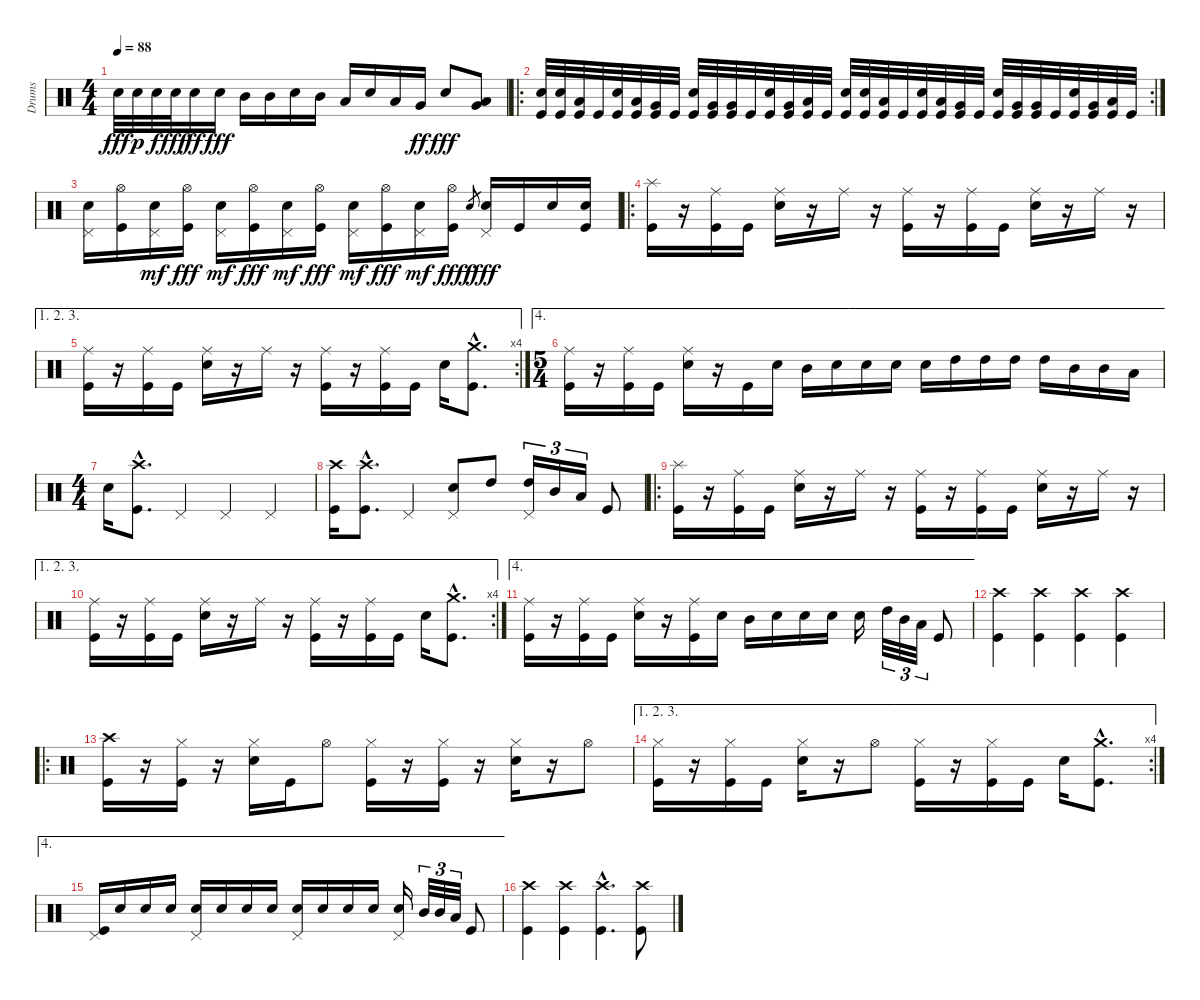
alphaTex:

\track ("Drums" "Drums") {instrument percussion}
\staff {score}
\articulation defaults
\ts (4 4)
\tempo 88
\clef neutral
\ks c "Electric Snare (hit)".32{dy fff} "Electric Snare (hit)".32{dy p} "Electric Snare (hit)".32{dy f} "Electric Snare (hit)".32{dy fff} "Electric Snare (hit)".16{dy ff} "Electric Snare (hit)".16{dy fff} "Mid Tom (hit)".16 "Mid Tom (hit)".16 "Electric Snare (hit)".16 "Mid Tom (hit)".16 "Low Tom (hit)".16 "Electric Snare (hit)".16 "Low Tom (hit)".16 "Very Low Tom (hit)".16{dy ff} "Electric Snare (hit)".8{dy fff}
("Low Floor Tom (hit)" "Very Low Tom (hit)").8 |
\ro
\rc 2
("Electric Snare (hit)" "Kick (hit)").32 ("Electric Snare (hit)" "Kick (hit)").32 ("Low Tom (hit)" "Kick (hit)").32 "Kick (hit)".32 ("Electric Snare (hit)" "Kick (hit)").32 ("Low Tom (hit)" "Kick (hit)").32 ("Very Low Tom (hit)" "Kick (hit)").32 "Kick (hit)".32 ("Electric Snare (hit)" "Kick (hit)").32 ("Very Low Tom (hit)" "Kick (hit)").32 ("Very Low Tom (hit)" "Kick (hit)").32 "Kick (hit)".32 ("Electric Snare (hit)" "Kick (hit)").32 ("Very Low Tom (hit)" "Kick (hit)").32 ("Low Floor Tom (hit)" "Kick (hit)").32 "Kick (hit)".32 ("Electric Snare (hit)" "Kick (hit)").32 ("Electric Snare (hit)" "Kick (hit)").32 ("Low Tom (hit)" "Kick (hit)").32 "Kick (hit)".32 ("Electric Snare (hit)" "Kick (hit)").32 ("Low Tom (hit)" "Kick (hit)").32 ("Very Low Tom (hit)" "Kick (hit)").32 "Kick (hit)".32 ("Electric Snare (hit)" "Kick (hit)").32 ("Very Low Tom (hit)" "Kick (hit)").32 ("Very Low Tom (hit)" "Kick (hit)").32 "Kick (hit)".32 ("Electric Snare (hit)" "Kick (hit)").32 ("Very Low Tom (hit)" "Kick (hit)").32 ("Low Floor Tom (hit)" "Kick (hit)").32 "Kick (hit)".32 |
("Pedal Hi-Hat (hit)" "Electric Snare (hit)").16 ("Hi-Hat (open)" "Kick (hit)").16 ("Pedal Hi-Hat (hit)" "Electric Snare (hit)").16{dy mf} ("Hi-Hat (open)" "Kick (hit)").16{dy fff} ("Pedal Hi-Hat (hit)" "Electric Snare (hit)").16{dy mf} ("Hi-Hat (open)" "Kick (hit)").16{dy fff} ("Pedal Hi-Hat (hit)" "Electric Snare (hit)").16{dy mf} ("Hi-Hat (open)" "Kick (hit)").16{dy fff} ("Pedal Hi-Hat (hit)" "Electric Snare (hit)").16{dy mf} ("Hi-Hat (open)" "Kick (hit)").16{dy fff} ("Pedal Hi-Hat (hit)" "Electric Snare (hit)").16{dy mf} ("Hi-Hat (open)" "Kick (hit)").16{dy fff} "Electric Snare (hit)".8{gr dy f} ("Pedal Hi-Hat (hit)" "Electric Snare (hit)").16{dy fff} "Kick (hit)".16 "Electric Snare (hit)".16 ("Electric Snare (hit)" "Kick (hit)").16 |
\ro
("Splash (hit)" "Kick (hit)").16 r.16 ("Ride (middle)" "Kick (hit)").16 "Kick (hit)".16 ("Ride (middle)" "Electric Snare (hit)").16 r.16 "Ride (middle)".16 r.16 ("Ride (middle)" "Kick (hit)").16 r.16 ("Ride (middle)" "Kick (hit)").16 "Kick (hit)".16 ("Ride (middle)" "Electric Snare (hit)").16 r.16 "Ride (middle)".16 r.16 |
\ae (1 2 3)
\rc 4
("Ride (middle)" "Kick (hit)").16 r.16 ("Ride (middle)" "Kick (hit)").16 "Kick (hit)".16 ("Ride (middle)" "Electric Snare (hit)").16 r.16 "Ride (middle)".16 r.16 ("Ride (middle)" "Kick (hit)").16 r.16 ("Ride (middle)" "Kick (hit)").16 "Kick (hit)".16 "Electric Snare (hit)".16 ("Crash medium (hit)"{hac} "Kick (hit)"{hac}).8{d} |
\ae 4
\ts (5 4)
("Ride (middle)" "Kick (hit)").16 r.16 ("Ride (middle)" "Kick (hit)").16 "Kick (hit)".16 ("Ride (middle)" "Electric Snare (hit)").16 r.16 "Kick (hit)".16 "Electric Snare (hit)".16 "Mid Tom (hit)".16 "Electric Snare (hit)".16 "Electric Snare (hit)".16 "Electric Snare (hit)".16 "Electric Snare (hit)".16 "High Tom (hit)".16 "High Tom (hit)".16 "High Tom (hit)".16 "High Tom (hit)".16 "Mid Tom (hit)".16 "Mid Tom (hit)".16 "Low Tom (hit)".16 |
\ts (4 4)
"Electric Snare (hit)".16 ("Crash high (hit)"{hac} "Kick (hit)"{hac}).8{d} "Pedal Hi-Hat (hit)".4 "Pedal Hi-Hat (hit)".4 "Pedal Hi-Hat (hit)".4 |
("Crash high (hit)" "Kick (hit)").16 ("Crash high (hit)"{hac} "Kick (hit)"{hac}).8{d} "Pedal Hi-Hat (hit)".4 ("Pedal Hi-Hat (hit)" "Electric Snare (hit)").8 "High Tom (hit)".8 ("Pedal Hi-Hat (hit)" "High Tom (hit)").16{tu (3 2)} "Mid Tom (hit)".16{tu (3 2)} "Low Tom (hit)".16{tu (3 2)} "Kick (hit)".8 |
\ro
("Splash (hit)" "Kick (hit)").16 r.16 ("Ride (middle)" "Kick (hit)").16 "Kick (hit)".16 ("Ride (middle)" "Electric Snare (hit)").16 r.16 "Ride (middle)".16 r.16 ("Ride (middle)" "Kick (hit)").16 r.16 ("Ride (middle)" "Kick (hit)").16 "Kick (hit)".16 ("Ride (middle)" "Electric Snare (hit)").16 r.16 "Ride (middle)".16 r.16 |
\ae (1 2 3)
\rc 4
("Ride (middle)" "Kick (hit)").16 r.16 ("Ride (middle)" "Kick (hit)").16 "Kick (hit)".16 ("Ride (middle)" "Electric Snare (hit)").16 r.16 "Ride (middle)".16 r.16 ("Ride (middle)" "Kick (hit)").16 r.16 ("Ride (middle)" "Kick (hit)").16 "Kick (hit)".16 "Electric Snare (hit)".16 ("Crash medium (hit)"{hac} "Kick (hit)"{hac}).8{d} |
\ae 4
("Ride (middle)" "Kick (hit)").16 r.16 ("Ride (middle)" "Kick (hit)").16 "Kick (hit)".16 ("Ride (middle)" "Electric Snare (hit)").16 r.16 ("Ride (middle)" "Kick (hit)").16 "Electric Snare (hit)".16 "Mid Tom (hit)".16 "Electric Snare (hit)".16 "Electric Snare (hit)".16 "Electric Snare (hit)".16 "Electric Snare (hit)".16 "High Tom (hit)".32{tu (3 2)} "Mid Tom (hit)".32{tu (3 2)} "Low Tom (hit)".32{tu (3 2)} "Kick (hit)".8 |
("Crash high (hit)" "Kick (hit)").4 ("Crash high (hit)" "Kick (hit)").4 ("Crash high (hit)" "Kick (hit)").4 ("Crash high (hit)" "Kick (hit)").4 |
\ro
("Crash high (hit)" "Kick (hit)").16 r.16 ("Hi-Hat (closed)" "Kick (hit)").16 r.16 ("Hi-Hat (closed)" "Electric Snare (hit)").16 "Kick (hit)".16 "Hi-Hat (open)".8 ("Hi-Hat (closed)" "Kick (hit)").16 r.16 ("Hi-Hat (closed)" "Kick (hit)").16 r.16 ("Hi-Hat (closed)" "Electric Snare (hit)").16 r.16 "Hi-Hat (open)".8 |
\ae (1 2 3)
\rc 4
("Hi-Hat (closed)" "Kick (hit)").16 r.16 ("Hi-Hat (closed)" "Kick (hit)").16 "Kick (hit)".16 ("Hi-Hat (closed)" "Electric Snare (hit)").16 r.16 "Hi-Hat (open)".8 ("Hi-Hat (closed)" "Kick (hit)").16 r.16 ("Hi-Hat (closed)" "Kick (hit)").16 "Kick (hit)".16 "Electric Snare (hit)".16 ("Crash medium (hit)"{hac} "Kick (hit)"{hac}).8{d} |
\ae 4
("Pedal Hi-Hat (hit)" "Kick (hit)").16 "Electric Snare (hit)".16 "Electric Snare (hit)".16 "Electric Snare (hit)".16 ("Pedal Hi-Hat (hit)" "Electric Snare (hit)").16 "Electric Snare (hit)".16 "Electric Snare (hit)".16 "Electric Snare (hit)".16 ("Pedal Hi-Hat (hit)" "Electric Snare (hit)").16 "Electric Snare (hit)".16 "Electric Snare (hit)".16 "Electric Snare (hit)".16 ("Pedal Hi-Hat (hit)" "Electric Snare (hit)").16 "Mid Tom (hit)".32{tu (3 2)} "Mid Tom (hit)".32{tu (3 2)} "Low Tom (hit)".32{tu (3 2)} "Kick (hit)".8 |
("Crash high (hit)" "Kick (hit)").4 ("Crash high (hit)" "Kick (hit)").4 ("Crash high (hit)"{hac} "Kick (hit)"{hac}).4{d} ("Crash high (hit)" "Kick (hit)").8
